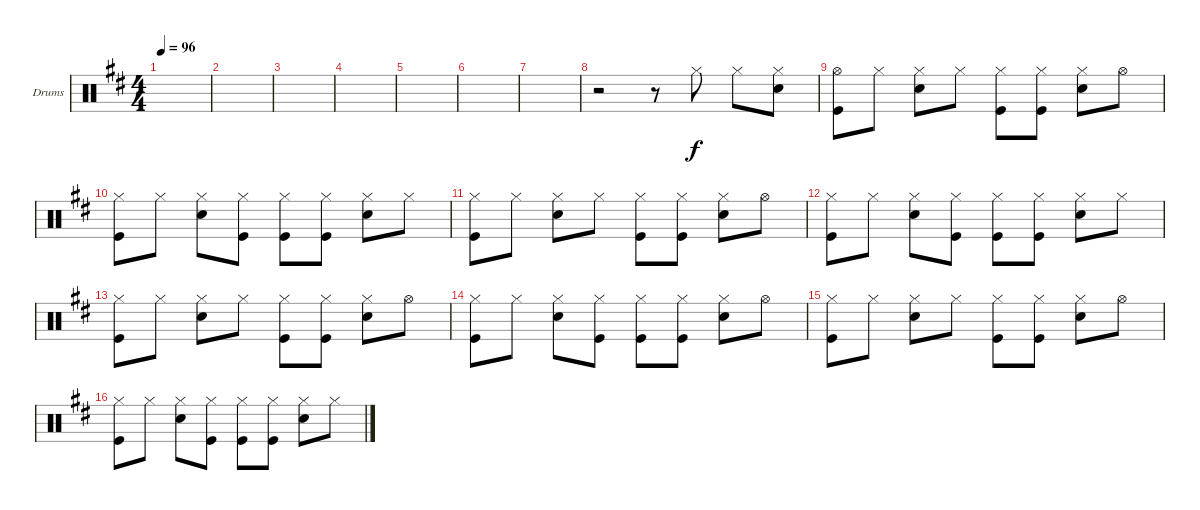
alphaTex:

\defaultSystemsLayout 4
\bracketExtendMode groupsimilarinstruments
\firstSystemTrackNameOrientation horizontal
\otherSystemsTrackNameOrientation horizontal
\track ("Drumkit" "Drums") {instrument percussion}
\staff {score}
\articulation defaults
\ts (4 4)
\tempo 96
\clef neutral
\scale
0.517241
\ks d
|
\scale
0.241379 |
\scale
0.241379 |
|
|
|
|
r.2 r.8 "Hi-Hat (closed)".8 "Hi-Hat (closed)".8 ("Hi-Hat (closed)" "Snare (hit) 2").8 |
("Hi-Hat (open)" "Kick (hit)").8 "Hi-Hat (closed)".8 ("Hi-Hat (closed)" "Snare (hit) 2").8 "Hi-Hat (closed)".8 ("Hi-Hat (closed)" "Kick (hit)").8 ("Hi-Hat (closed)" "Kick (hit)").8 ("Hi-Hat (closed)" "Snare (hit) 2").8 "Hi-Hat (open)".8 |
("Hi-Hat (closed)" "Kick (hit)").8 "Hi-Hat (closed)".8 ("Hi-Hat (closed)" "Snare (hit) 2").8 ("Hi-Hat (closed)" "Kick (hit)").8 ("Kick (hit)" "Hi-Hat (closed)").8 ("Hi-Hat (closed)" "Kick (hit)").8 ("Hi-Hat (closed)" "Snare (hit) 2").8 "Hi-Hat (closed)".8 |
("Kick (hit)" "Hi-Hat (closed)").8 "Hi-Hat (closed)".8 ("Hi-Hat (closed)" "Snare (hit) 2").8 "Hi-Hat (closed)".8 ("Kick (hit)" "Hi-Hat (closed)").8 ("Kick (hit)" "Hi-Hat (closed)").8 ("Hi-Hat (closed)" "Snare (hit) 2").8 "Hi-Hat (open)".8 |
("Hi-Hat (closed)" "Kick (hit)").8 "Hi-Hat (closed)".8 ("Hi-Hat (closed)" "Snare (hit) 2").8 ("Hi-Hat (closed)" "Kick (hit)").8 ("Hi-Hat (closed)" "Kick (hit)").8 ("Hi-Hat (closed)" "Kick (hit)").8 ("Hi-Hat (closed)" "Snare (hit) 2").8 "Hi-Hat (closed)".8 |
("Hi-Hat (closed)" "Kick (hit)").8 "Hi-Hat (closed)".8 ("Hi-Hat (closed)" "Snare (hit) 2").8 "Hi-Hat (closed)".8 ("Hi-Hat (closed)" "Kick (hit)").8 ("Hi-Hat (closed)" "Kick (hit)").8 ("Hi-Hat (closed)" "Snare (hit) 2").8 "Hi-Hat (open)".8 |
("Kick (hit)" "Hi-Hat (closed)").8 "Hi-Hat (closed)".8 ("Hi-Hat (closed)" "Snare (hit) 2").8 ("Kick (hit)" "Hi-Hat (closed)").8 ("Hi-Hat (closed)" "Kick (hit)").8 ("Hi-Hat (closed)" "Kick (hit)").8 ("Hi-Hat (closed)" "Snare (hit) 2").8 "Hi-Hat (open)".8 |
("Hi-Hat (closed)" "Kick (hit)").8 "Hi-Hat (closed)".8 ("Hi-Hat (closed)" "Snare (hit) 2").8 "Hi-Hat (closed)".8 ("Hi-Hat (closed)" "Kick (hit)").8 ("Kick (hit)" "Hi-Hat (closed)").8 ("Hi-Hat (closed)" "Snare (hit) 2").8 "Hi-Hat (open)".8 |
("Hi-Hat (closed)" "Kick (hit)").8 "Hi-Hat (closed)".8 ("Hi-Hat (closed)" "Snare (hit) 2").8 ("Hi-Hat (closed)" "Kick (hit)").8 ("Kick (hit)" "Hi-Hat (closed)").8 ("Kick (hit)" "Hi-Hat (closed)").8 ("Hi-Hat (closed)" "Snare (hit) 2").8 "Hi-Hat (closed)".8
